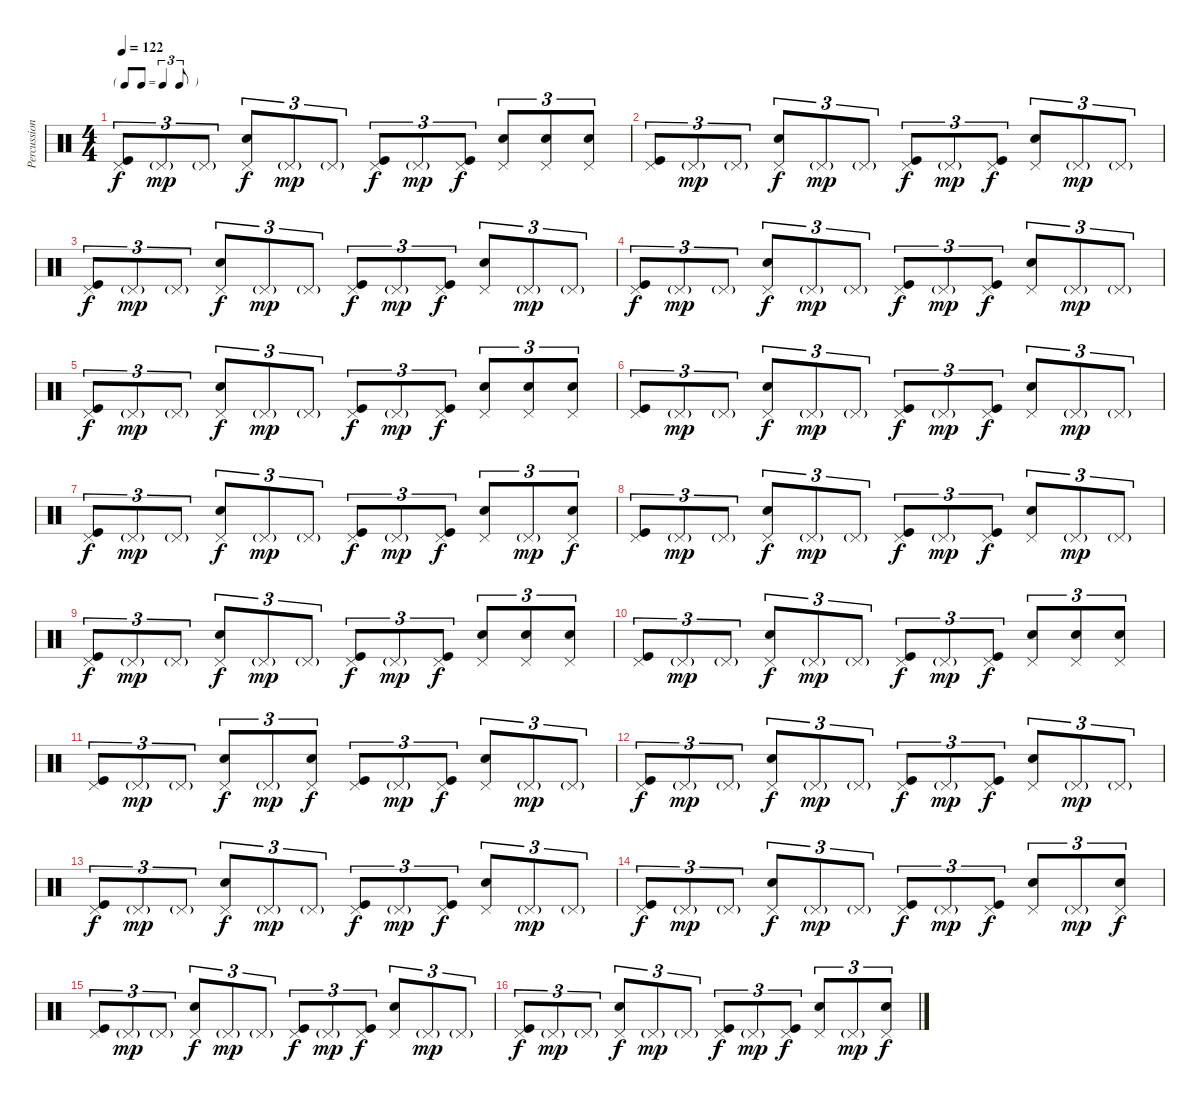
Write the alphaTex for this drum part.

\track ("Percussion" "Percussion") {instrument percussion}
\staff {score}
\articulation defaults
\ts (4 4)
\tf triplet8th
\tempo 122
\clef neutral
\ks c
("Pedal Hi-Hat (hit)" "Kick (hit)").8{tu (3 2) dy f} "Pedal Hi-Hat (hit)"{g}.8{tu (3 2) dy mp} "Pedal Hi-Hat (hit)"{g}.8{tu (3 2)} ("Pedal Hi-Hat (hit)" "Snare (hit) 2").8{tu (3 2) dy f} "Pedal Hi-Hat (hit)"{g}.8{tu (3 2) dy mp} "Pedal Hi-Hat (hit)"{g}.8{tu (3 2)} ("Pedal Hi-Hat (hit)" "Kick (hit)").8{tu (3 2) dy f} "Pedal Hi-Hat (hit)"{g}.8{tu (3 2) dy mp} ("Pedal Hi-Hat (hit)" "Kick (hit)").8{tu (3 2) dy f} ("Pedal Hi-Hat (hit)" "Snare (hit) 2").8{tu (3 2)} ("Pedal Hi-Hat (hit)" "Snare (hit) 2").8{tu (3 2)} ("Pedal Hi-Hat (hit)" "Snare (hit) 2").8{tu (3 2)} |
("Pedal Hi-Hat (hit)" "Kick (hit)").8{tu (3 2)} "Pedal Hi-Hat (hit)"{g}.8{tu (3 2) dy mp} "Pedal Hi-Hat (hit)"{g}.8{tu (3 2)} ("Pedal Hi-Hat (hit)" "Snare (hit) 2").8{tu (3 2) dy f} "Pedal Hi-Hat (hit)"{g}.8{tu (3 2) dy mp} "Pedal Hi-Hat (hit)"{g}.8{tu (3 2)} ("Pedal Hi-Hat (hit)" "Kick (hit)").8{tu (3 2) dy f} "Pedal Hi-Hat (hit)"{g}.8{tu (3 2) dy mp} ("Pedal Hi-Hat (hit)" "Kick (hit)").8{tu (3 2) dy f} ("Pedal Hi-Hat (hit)" "Snare (hit) 2").8{tu (3 2)} "Pedal Hi-Hat (hit)"{g}.8{tu (3 2) dy mp} "Pedal Hi-Hat (hit)"{g}.8{tu (3 2)} |
("Pedal Hi-Hat (hit)" "Kick (hit)").8{tu (3 2) dy f} "Pedal Hi-Hat (hit)"{g}.8{tu (3 2) dy mp} "Pedal Hi-Hat (hit)"{g}.8{tu (3 2)} ("Pedal Hi-Hat (hit)" "Snare (hit) 2").8{tu (3 2) dy f} "Pedal Hi-Hat (hit)"{g}.8{tu (3 2) dy mp} "Pedal Hi-Hat (hit)"{g}.8{tu (3 2)} ("Pedal Hi-Hat (hit)" "Kick (hit)").8{tu (3 2) dy f} "Pedal Hi-Hat (hit)"{g}.8{tu (3 2) dy mp} ("Pedal Hi-Hat (hit)" "Kick (hit)").8{tu (3 2) dy f} ("Pedal Hi-Hat (hit)" "Snare (hit) 2").8{tu (3 2)} "Pedal Hi-Hat (hit)"{g}.8{tu (3 2) dy mp} "Pedal Hi-Hat (hit)"{g}.8{tu (3 2)} |
("Pedal Hi-Hat (hit)" "Kick (hit)").8{tu (3 2) dy f} "Pedal Hi-Hat (hit)"{g}.8{tu (3 2) dy mp} "Pedal Hi-Hat (hit)"{g}.8{tu (3 2)} ("Pedal Hi-Hat (hit)" "Snare (hit) 2").8{tu (3 2) dy f} "Pedal Hi-Hat (hit)"{g}.8{tu (3 2) dy mp} "Pedal Hi-Hat (hit)"{g}.8{tu (3 2)} ("Pedal Hi-Hat (hit)" "Kick (hit)").8{tu (3 2) dy f} "Pedal Hi-Hat (hit)"{g}.8{tu (3 2) dy mp} ("Pedal Hi-Hat (hit)" "Kick (hit)").8{tu (3 2) dy f} ("Pedal Hi-Hat (hit)" "Snare (hit) 2").8{tu (3 2)} "Pedal Hi-Hat (hit)"{g}.8{tu (3 2) dy mp} "Pedal Hi-Hat (hit)"{g}.8{tu (3 2)} |
("Pedal Hi-Hat (hit)" "Kick (hit)").8{tu (3 2) dy f} "Pedal Hi-Hat (hit)"{g}.8{tu (3 2) dy mp} "Pedal Hi-Hat (hit)"{g}.8{tu (3 2)} ("Pedal Hi-Hat (hit)" "Snare (hit) 2").8{tu (3 2) dy f} "Pedal Hi-Hat (hit)"{g}.8{tu (3 2) dy mp} "Pedal Hi-Hat (hit)"{g}.8{tu (3 2)} ("Pedal Hi-Hat (hit)" "Kick (hit)").8{tu (3 2) dy f} "Pedal Hi-Hat (hit)"{g}.8{tu (3 2) dy mp} ("Pedal Hi-Hat (hit)" "Kick (hit)").8{tu (3 2) dy f} ("Pedal Hi-Hat (hit)" "Snare (hit) 2").8{tu (3 2)} ("Pedal Hi-Hat (hit)" "Snare (hit) 2").8{tu (3 2)} ("Pedal Hi-Hat (hit)" "Snare (hit) 2").8{tu (3 2)} |
("Pedal Hi-Hat (hit)" "Kick (hit)").8{tu (3 2)} "Pedal Hi-Hat (hit)"{g}.8{tu (3 2) dy mp} "Pedal Hi-Hat (hit)"{g}.8{tu (3 2)} ("Pedal Hi-Hat (hit)" "Snare (hit) 2").8{tu (3 2) dy f} "Pedal Hi-Hat (hit)"{g}.8{tu (3 2) dy mp} "Pedal Hi-Hat (hit)"{g}.8{tu (3 2)} ("Pedal Hi-Hat (hit)" "Kick (hit)").8{tu (3 2) dy f} "Pedal Hi-Hat (hit)"{g}.8{tu (3 2) dy mp} ("Pedal Hi-Hat (hit)" "Kick (hit)").8{tu (3 2) dy f} ("Pedal Hi-Hat (hit)" "Snare (hit) 2").8{tu (3 2)} "Pedal Hi-Hat (hit)"{g}.8{tu (3 2) dy mp} "Pedal Hi-Hat (hit)"{g}.8{tu (3 2)} |
("Pedal Hi-Hat (hit)" "Kick (hit)").8{tu (3 2) dy f} "Pedal Hi-Hat (hit)"{g}.8{tu (3 2) dy mp} "Pedal Hi-Hat (hit)"{g}.8{tu (3 2)} ("Pedal Hi-Hat (hit)" "Snare (hit) 2").8{tu (3 2) dy f} "Pedal Hi-Hat (hit)"{g}.8{tu (3 2) dy mp} "Pedal Hi-Hat (hit)"{g}.8{tu (3 2)} ("Pedal Hi-Hat (hit)" "Kick (hit)").8{tu (3 2) dy f} "Pedal Hi-Hat (hit)"{g}.8{tu (3 2) dy mp} ("Pedal Hi-Hat (hit)" "Kick (hit)").8{tu (3 2) dy f} ("Pedal Hi-Hat (hit)" "Snare (hit) 2").8{tu (3 2)} "Pedal Hi-Hat (hit)"{g}.8{tu (3 2) dy mp} ("Pedal Hi-Hat (hit)" "Snare (hit) 2").8{tu (3 2) dy f} |
("Pedal Hi-Hat (hit)" "Kick (hit)").8{tu (3 2)} "Pedal Hi-Hat (hit)"{g}.8{tu (3 2) dy mp} "Pedal Hi-Hat (hit)"{g}.8{tu (3 2)} ("Pedal Hi-Hat (hit)" "Snare (hit) 2").8{tu (3 2) dy f} "Pedal Hi-Hat (hit)"{g}.8{tu (3 2) dy mp} "Pedal Hi-Hat (hit)"{g}.8{tu (3 2)} ("Pedal Hi-Hat (hit)" "Kick (hit)").8{tu (3 2) dy f} "Pedal Hi-Hat (hit)"{g}.8{tu (3 2) dy mp} ("Pedal Hi-Hat (hit)" "Kick (hit)").8{tu (3 2) dy f} ("Pedal Hi-Hat (hit)" "Snare (hit) 2").8{tu (3 2)} "Pedal Hi-Hat (hit)"{g}.8{tu (3 2) dy mp} "Pedal Hi-Hat (hit)"{g}.8{tu (3 2)} |
("Pedal Hi-Hat (hit)" "Kick (hit)").8{tu (3 2) dy f} "Pedal Hi-Hat (hit)"{g}.8{tu (3 2) dy mp} "Pedal Hi-Hat (hit)"{g}.8{tu (3 2)} ("Pedal Hi-Hat (hit)" "Snare (hit) 2").8{tu (3 2) dy f} "Pedal Hi-Hat (hit)"{g}.8{tu (3 2) dy mp} "Pedal Hi-Hat (hit)"{g}.8{tu (3 2)} ("Pedal Hi-Hat (hit)" "Kick (hit)").8{tu (3 2) dy f} "Pedal Hi-Hat (hit)"{g}.8{tu (3 2) dy mp} ("Pedal Hi-Hat (hit)" "Kick (hit)").8{tu (3 2) dy f} ("Pedal Hi-Hat (hit)" "Snare (hit) 2").8{tu (3 2)} ("Pedal Hi-Hat (hit)" "Snare (hit) 2").8{tu (3 2)} ("Pedal Hi-Hat (hit)" "Snare (hit) 2").8{tu (3 2)} |
("Pedal Hi-Hat (hit)" "Kick (hit)").8{tu (3 2)} "Pedal Hi-Hat (hit)"{g}.8{tu (3 2) dy mp} "Pedal Hi-Hat (hit)"{g}.8{tu (3 2)} ("Pedal Hi-Hat (hit)" "Snare (hit) 2").8{tu (3 2) dy f} "Pedal Hi-Hat (hit)"{g}.8{tu (3 2) dy mp} "Pedal Hi-Hat (hit)"{g}.8{tu (3 2)} ("Pedal Hi-Hat (hit)" "Kick (hit)").8{tu (3 2) dy f} "Pedal Hi-Hat (hit)"{g}.8{tu (3 2) dy mp} ("Pedal Hi-Hat (hit)" "Kick (hit)").8{tu (3 2) dy f} ("Pedal Hi-Hat (hit)" "Snare (hit) 2").8{tu (3 2)} ("Pedal Hi-Hat (hit)" "Snare (hit) 2").8{tu (3 2)} ("Pedal Hi-Hat (hit)" "Snare (hit) 2").8{tu (3 2)} |
("Pedal Hi-Hat (hit)" "Kick (hit)").8{tu (3 2)} "Pedal Hi-Hat (hit)"{g}.8{tu (3 2) dy mp} "Pedal Hi-Hat (hit)"{g}.8{tu (3 2)} ("Pedal Hi-Hat (hit)" "Snare (hit) 2").8{tu (3 2) dy f} "Pedal Hi-Hat (hit)"{g}.8{tu (3 2) dy mp} ("Pedal Hi-Hat (hit)" "Snare (hit) 2").8{tu (3 2) dy f} ("Pedal Hi-Hat (hit)" "Kick (hit)").8{tu (3 2)} "Pedal Hi-Hat (hit)"{g}.8{tu (3 2) dy mp} ("Pedal Hi-Hat (hit)" "Kick (hit)").8{tu (3 2) dy f} ("Pedal Hi-Hat (hit)" "Snare (hit) 2").8{tu (3 2)} "Pedal Hi-Hat (hit)"{g}.8{tu (3 2) dy mp} "Pedal Hi-Hat (hit)"{g}.8{tu (3 2)} |
("Pedal Hi-Hat (hit)" "Kick (hit)").8{tu (3 2) dy f} "Pedal Hi-Hat (hit)"{g}.8{tu (3 2) dy mp} "Pedal Hi-Hat (hit)"{g}.8{tu (3 2)} ("Pedal Hi-Hat (hit)" "Snare (hit) 2").8{tu (3 2) dy f} "Pedal Hi-Hat (hit)"{g}.8{tu (3 2) dy mp} "Pedal Hi-Hat (hit)"{g}.8{tu (3 2)} ("Pedal Hi-Hat (hit)" "Kick (hit)").8{tu (3 2) dy f} "Pedal Hi-Hat (hit)"{g}.8{tu (3 2) dy mp} ("Pedal Hi-Hat (hit)" "Kick (hit)").8{tu (3 2) dy f} ("Pedal Hi-Hat (hit)" "Snare (hit) 2").8{tu (3 2)} "Pedal Hi-Hat (hit)"{g}.8{tu (3 2) dy mp} "Pedal Hi-Hat (hit)"{g}.8{tu (3 2)} |
("Pedal Hi-Hat (hit)" "Kick (hit)").8{tu (3 2) dy f} "Pedal Hi-Hat (hit)"{g}.8{tu (3 2) dy mp} "Pedal Hi-Hat (hit)"{g}.8{tu (3 2)} ("Pedal Hi-Hat (hit)" "Snare (hit) 2").8{tu (3 2) dy f} "Pedal Hi-Hat (hit)"{g}.8{tu (3 2) dy mp} "Pedal Hi-Hat (hit)"{g}.8{tu (3 2)} ("Pedal Hi-Hat (hit)" "Kick (hit)").8{tu (3 2) dy f} "Pedal Hi-Hat (hit)"{g}.8{tu (3 2) dy mp} ("Pedal Hi-Hat (hit)" "Kick (hit)").8{tu (3 2) dy f} ("Pedal Hi-Hat (hit)" "Snare (hit) 2").8{tu (3 2)} "Pedal Hi-Hat (hit)"{g}.8{tu (3 2) dy mp} "Pedal Hi-Hat (hit)"{g}.8{tu (3 2)} |
("Pedal Hi-Hat (hit)" "Kick (hit)").8{tu (3 2) dy f} "Pedal Hi-Hat (hit)"{g}.8{tu (3 2) dy mp} "Pedal Hi-Hat (hit)"{g}.8{tu (3 2)} ("Pedal Hi-Hat (hit)" "Snare (hit) 2").8{tu (3 2) dy f} "Pedal Hi-Hat (hit)"{g}.8{tu (3 2) dy mp} "Pedal Hi-Hat (hit)"{g}.8{tu (3 2)} ("Pedal Hi-Hat (hit)" "Kick (hit)").8{tu (3 2) dy f} "Pedal Hi-Hat (hit)"{g}.8{tu (3 2) dy mp} ("Pedal Hi-Hat (hit)" "Kick (hit)").8{tu (3 2) dy f} ("Pedal Hi-Hat (hit)" "Snare (hit) 2").8{tu (3 2)} "Pedal Hi-Hat (hit)"{g}.8{tu (3 2) dy mp} ("Pedal Hi-Hat (hit)" "Snare (hit) 2").8{tu (3 2) dy f} |
("Pedal Hi-Hat (hit)" "Kick (hit)").8{tu (3 2)} "Pedal Hi-Hat (hit)"{g}.8{tu (3 2) dy mp} "Pedal Hi-Hat (hit)"{g}.8{tu (3 2)} ("Pedal Hi-Hat (hit)" "Snare (hit) 2").8{tu (3 2) dy f} "Pedal Hi-Hat (hit)"{g}.8{tu (3 2) dy mp} "Pedal Hi-Hat (hit)"{g}.8{tu (3 2)} ("Pedal Hi-Hat (hit)" "Kick (hit)").8{tu (3 2) dy f} "Pedal Hi-Hat (hit)"{g}.8{tu (3 2) dy mp} ("Pedal Hi-Hat (hit)" "Kick (hit)").8{tu (3 2) dy f} ("Pedal Hi-Hat (hit)" "Snare (hit) 2").8{tu (3 2)} "Pedal Hi-Hat (hit)"{g}.8{tu (3 2) dy mp} "Pedal Hi-Hat (hit)"{g}.8{tu (3 2)} |
("Pedal Hi-Hat (hit)" "Kick (hit)").8{tu (3 2) dy f} "Pedal Hi-Hat (hit)"{g}.8{tu (3 2) dy mp} "Pedal Hi-Hat (hit)"{g}.8{tu (3 2)} ("Pedal Hi-Hat (hit)" "Snare (hit) 2").8{tu (3 2) dy f} "Pedal Hi-Hat (hit)"{g}.8{tu (3 2) dy mp} "Pedal Hi-Hat (hit)"{g}.8{tu (3 2)} ("Pedal Hi-Hat (hit)" "Kick (hit)").8{tu (3 2) dy f} "Pedal Hi-Hat (hit)"{g}.8{tu (3 2) dy mp} ("Pedal Hi-Hat (hit)" "Kick (hit)").8{tu (3 2) dy f} ("Pedal Hi-Hat (hit)" "Snare (hit) 2").8{tu (3 2)} "Pedal Hi-Hat (hit)"{g}.8{tu (3 2) dy mp} ("Pedal Hi-Hat (hit)" "Snare (hit) 2").8{tu (3 2) dy f}
